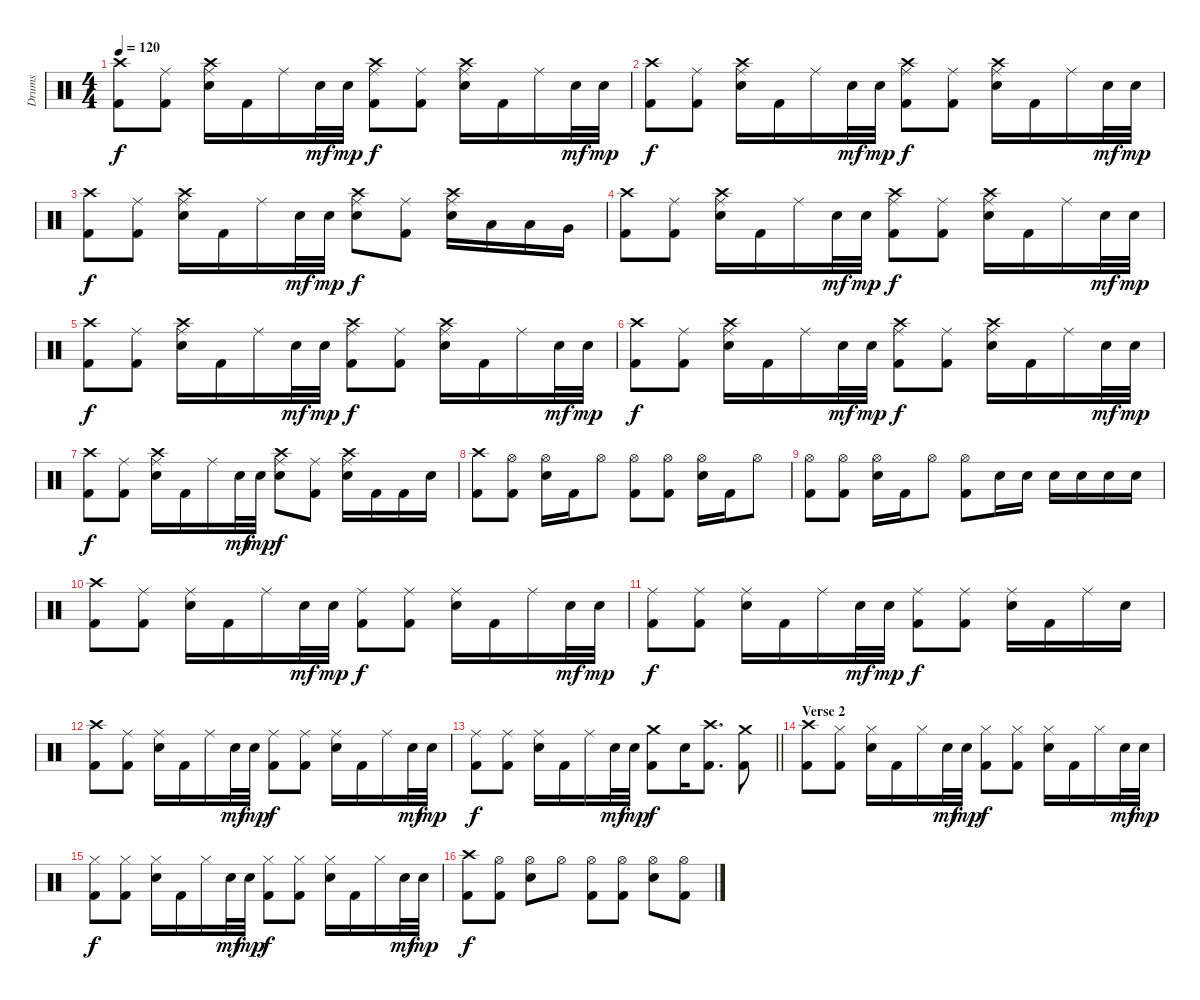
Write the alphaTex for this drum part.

\track ("Drums" "Drums") {instrument percussion}
\staff {score}
\articulation defaults
\ts (4 4)
\tempo 120
\clef neutral
\ks c
("Crash high (hit)" "Kick (hit) 2").8{dy f} ("Ride (middle)" "Kick (hit) 2").8 ("Ride (middle)" "Crash high (hit)" "Snare (hit) 2").16 "Kick (hit) 2".16 "Ride (middle)".16 "Snare (hit) 2".32{dy mf} "Snare (hit) 2".32{dy mp} ("Ride (middle)" "Crash high (hit)" "Kick (hit) 2").8{dy f} ("Ride (middle)" "Kick (hit) 2").8 ("Ride (middle)" "Crash high (hit)" "Snare (hit) 2").16 "Kick (hit) 2".16 "Ride (middle)".16 "Snare (hit) 2".32{dy mf} "Snare (hit) 2".32{dy mp} |
("Crash high (hit)" "Kick (hit) 2").8{dy f} ("Ride (middle)" "Kick (hit) 2").8 ("Ride (middle)" "Crash high (hit)" "Snare (hit) 2").16 "Kick (hit) 2".16 "Ride (middle)".16 "Snare (hit) 2".32{dy mf} "Snare (hit) 2".32{dy mp} ("Ride (middle)" "Crash high (hit)" "Kick (hit) 2").8{dy f} ("Ride (middle)" "Kick (hit) 2").8 ("Ride (middle)" "Crash high (hit)" "Snare (hit) 2").16 "Kick (hit) 2".16 "Ride (middle)".16 "Snare (hit) 2".32{dy mf} "Snare (hit) 2".32{dy mp} |
("Crash high (hit)" "Kick (hit) 2").8{dy f} ("Ride (middle)" "Kick (hit) 2").8 ("Ride (middle)" "Crash high (hit)" "Snare (hit) 2").16 "Kick (hit) 2".16 "Ride (middle)".16 "Snare (hit) 2".32{dy mf} "Snare (hit) 2".32{dy mp} ("Ride (middle)" "Crash high (hit)" "Snare (hit) 2").8{dy f} ("Ride (middle)" "Kick (hit) 2").8 ("Ride (middle)" "Crash high (hit)" "Snare (hit) 2").16 "Low Tom (hit)".16 "Low Tom (hit)".16 "Very Low Tom (hit)".16 |
("Crash high (hit)" "Kick (hit) 2").8 ("Ride (middle)" "Kick (hit) 2").8 ("Ride (middle)" "Crash high (hit)" "Snare (hit) 2").16 "Kick (hit) 2".16 "Ride (middle)".16 "Snare (hit) 2".32{dy mf} "Snare (hit) 2".32{dy mp} ("Ride (middle)" "Crash high (hit)" "Kick (hit) 2").8{dy f} ("Ride (middle)" "Kick (hit) 2").8 ("Ride (middle)" "Crash high (hit)" "Snare (hit) 2").16 "Kick (hit) 2".16 "Ride (middle)".16 "Snare (hit) 2".32{dy mf} "Snare (hit) 2".32{dy mp} |
("Crash high (hit)" "Kick (hit) 2").8{dy f} ("Ride (middle)" "Kick (hit) 2").8 ("Ride (middle)" "Crash high (hit)" "Snare (hit) 2").16 "Kick (hit) 2".16 "Ride (middle)".16 "Snare (hit) 2".32{dy mf} "Snare (hit) 2".32{dy mp} ("Ride (middle)" "Crash high (hit)" "Kick (hit) 2").8{dy f} ("Ride (middle)" "Kick (hit) 2").8 ("Ride (middle)" "Crash high (hit)" "Snare (hit) 2").16 "Kick (hit) 2".16 "Ride (middle)".16 "Snare (hit) 2".32{dy mf} "Snare (hit) 2".32{dy mp} |
("Crash high (hit)" "Kick (hit) 2").8{dy f} ("Ride (middle)" "Kick (hit) 2").8 ("Ride (middle)" "Crash high (hit)" "Snare (hit) 2").16 "Kick (hit) 2".16 "Ride (middle)".16 "Snare (hit) 2".32{dy mf} "Snare (hit) 2".32{dy mp} ("Ride (middle)" "Crash high (hit)" "Kick (hit) 2").8{dy f} ("Ride (middle)" "Kick (hit) 2").8 ("Ride (middle)" "Crash high (hit)" "Snare (hit) 2").16 "Kick (hit) 2".16 "Ride (middle)".16 "Snare (hit) 2".32{dy mf} "Snare (hit) 2".32{dy mp} |
("Crash high (hit)" "Kick (hit) 2").8{dy f} ("Ride (middle)" "Kick (hit) 2").8 ("Ride (middle)" "Crash high (hit)" "Snare (hit) 2").16 "Kick (hit) 2".16 "Ride (middle)".16 "Snare (hit) 2".32{dy mf} "Snare (hit) 2".32{dy mp} ("Ride (middle)" "Crash high (hit)" "Snare (hit) 2").8{dy f} ("Ride (middle)" "Kick (hit) 2").8 ("Ride (middle)" "Crash high (hit)" "Snare (hit) 2").16 "Kick (hit) 2".16 "Kick (hit) 2".16 "Snare (hit) 2".16 |
("Crash high (hit)" "Kick (hit) 2").8 ("Hi-Hat (open)" "Kick (hit) 2").8 ("Hi-Hat (open)" "Snare (hit) 2").16 "Kick (hit) 2".16 "Hi-Hat (open)".8 ("Hi-Hat (open)" "Kick (hit) 2").8 ("Hi-Hat (open)" "Kick (hit) 2").8 ("Hi-Hat (open)" "Snare (hit) 2").16 "Kick (hit) 2".16 "Hi-Hat (open)".8 |
("Hi-Hat (open)" "Kick (hit) 2").8 ("Hi-Hat (open)" "Kick (hit) 2").8 ("Hi-Hat (open)" "Snare (hit) 2").16 "Kick (hit) 2".16 "Hi-Hat (open)".8 ("Hi-Hat (open)" "Kick (hit) 2").8 "Snare (hit) 2".16 "Snare (hit) 2".16 "Snare (hit) 2".16 "Snare (hit) 2".16 "Snare (hit) 2".16 "Snare (hit) 2".16 |
("Crash high (hit)" "Kick (hit) 2").8 ("Ride (middle)" "Kick (hit) 2").8 ("Ride (middle)" "Snare (hit) 2").16 "Kick (hit) 2".16 "Ride (middle)".16 "Snare (hit) 2".32{dy mf} "Snare (hit) 2".32{dy mp} ("Ride (middle)" "Kick (hit) 2").8{dy f} ("Ride (middle)" "Kick (hit) 2").8 ("Ride (middle)" "Snare (hit) 2").16 "Kick (hit) 2".16 "Ride (middle)".16 "Snare (hit) 2".32{dy mf} "Snare (hit) 2".32{dy mp} |
("Ride (middle)" "Kick (hit) 2").8{dy f} ("Ride (middle)" "Kick (hit) 2").8 ("Ride (middle)" "Snare (hit) 2").16 "Kick (hit) 2".16 "Ride (middle)".16 "Snare (hit) 2".32{dy mf} "Snare (hit) 2".32{dy mp} ("Ride (middle)" "Kick (hit) 2").8{dy f} ("Ride (middle)" "Kick (hit) 2").8 ("Ride (middle)" "Snare (hit) 2").16 "Kick (hit) 2".16 "Ride (middle)".16 "Snare (hit) 2".16 |
("Crash high (hit)" "Kick (hit) 2").8 ("Ride (middle)" "Kick (hit) 2").8 ("Ride (middle)" "Snare (hit) 2").16 "Kick (hit) 2".16 "Ride (middle)".16 "Snare (hit) 2".32{dy mf} "Snare (hit) 2".32{dy mp} ("Ride (middle)" "Kick (hit) 2").8{dy f} ("Ride (middle)" "Kick (hit) 2").8 ("Ride (middle)" "Snare (hit) 2").16 "Kick (hit) 2".16 "Ride (middle)".16 "Snare (hit) 2".32{dy mf} "Snare (hit) 2".32{dy mp} |
\barLineRight lightlight
("Ride (middle)" "Kick (hit) 2").8{dy f} ("Ride (middle)" "Kick (hit) 2").8 ("Ride (middle)" "Snare (hit) 2").16 "Kick (hit) 2".16 "Ride (middle)".16 "Snare (hit) 2".32{dy mf} "Snare (hit) 2".32{dy mp} ("Crash medium (hit)" "Kick (hit) 2").8{dy f} "Snare (hit) 2".16 ("Crash high (hit)" "Kick (hit) 2").8{d} ("Crash medium (hit)" "Kick (hit) 2").8 |
\section ("" "Verse 2")
("Crash high (hit)" "Kick (hit) 2").8 ("Hi-Hat (closed)" "Kick (hit) 2").8 ("Hi-Hat (closed)" "Snare (hit) 2").16 "Kick (hit) 2".16 "Hi-Hat (closed)".16 "Snare (hit) 2".32{dy mf} "Snare (hit) 2".32{dy mp} ("Hi-Hat (closed)" "Kick (hit) 2").8{dy f} ("Hi-Hat (closed)" "Kick (hit) 2").8 ("Hi-Hat (closed)" "Snare (hit) 2").16 "Kick (hit) 2".16 "Hi-Hat (closed)".16 "Snare (hit) 2".32{dy mf} "Snare (hit) 2".32{dy mp} |
("Hi-Hat (closed)" "Kick (hit) 2").8{dy f} ("Hi-Hat (closed)" "Kick (hit) 2").8 ("Hi-Hat (closed)" "Snare (hit) 2").16 "Kick (hit) 2".16 "Hi-Hat (closed)".16 "Snare (hit) 2".32{dy mf} "Snare (hit) 2".32{dy mp} ("Hi-Hat (closed)" "Kick (hit) 2").8{dy f} ("Hi-Hat (closed)" "Kick (hit) 2").8 ("Hi-Hat (closed)" "Snare (hit) 2").16 "Kick (hit) 2".16 "Hi-Hat (closed)".16 "Snare (hit) 2".32{dy mf} "Snare (hit) 2".32{dy mp} |
("Crash high (hit)" "Kick (hit) 2").8{dy f} ("Hi-Hat (open)" "Kick (hit) 2").8 ("Hi-Hat (open)" "Snare (hit) 2").8 "Hi-Hat (open)".8 ("Hi-Hat (open)" "Kick (hit) 2").8 ("Hi-Hat (open)" "Kick (hit) 2").8 ("Hi-Hat (open)" "Snare (hit) 2").8 ("Hi-Hat (open)" "Kick (hit) 2").8
